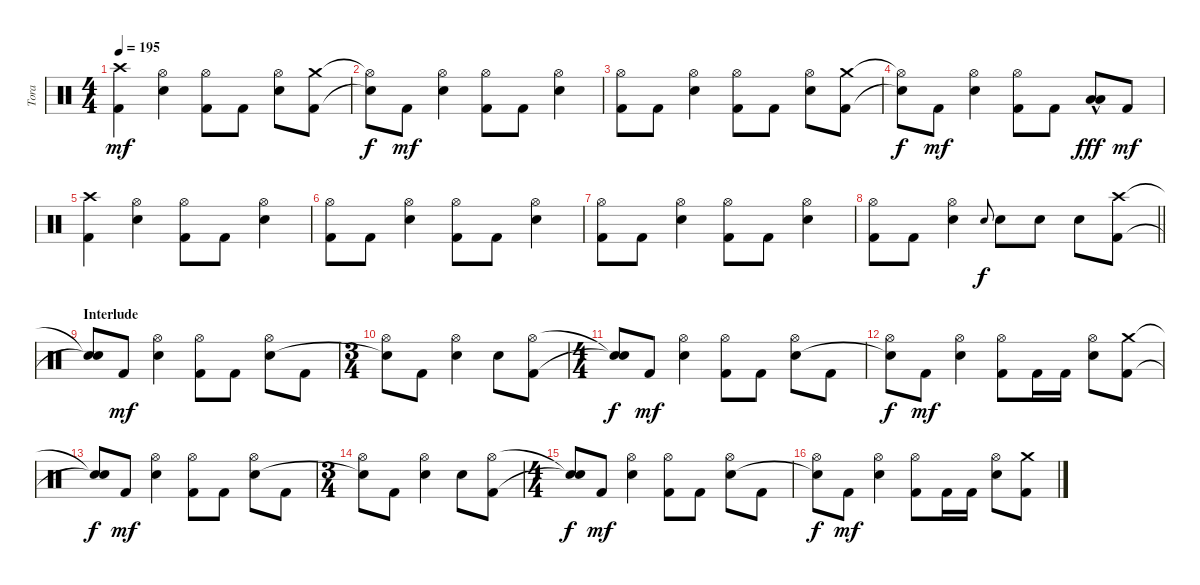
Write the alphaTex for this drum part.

\track ("Tora" "Tora") {instrument percussion}
\staff {score}
\articulation defaults
\ts (4 4)
\tempo 195
\clef neutral
\ks c
("Crash high (hit)" "Kick (hit) 2").4{dy mf} ("Hi-Hat (open)" "Electric Snare (hit)").4 ("Hi-Hat (open)" "Kick (hit) 2").8 "Kick (hit) 2".8 ("Hi-Hat (open)" "Electric Snare (hit)").8 ("Crash medium (hit)" "Kick (hit) 2").8 |
("Hi-Hat (open)"{t} "Snare (hit)"{t}).8{dy f} "Kick (hit) 2".8{dy mf} ("Hi-Hat (open)" "Electric Snare (hit)").4 ("Hi-Hat (open)" "Kick (hit) 2").8 "Kick (hit) 2".8 ("Hi-Hat (open)" "Electric Snare (hit)").4 |
("Hi-Hat (open)" "Kick (hit) 2").8 "Kick (hit) 2".8 ("Hi-Hat (open)" "Electric Snare (hit)").4 ("Hi-Hat (open)" "Kick (hit) 2").8 "Kick (hit) 2".8 ("Hi-Hat (open)" "Electric Snare (hit)").8 ("Crash medium (hit)" "Kick (hit) 2").8 |
("Hi-Hat (open)"{t} "Snare (hit)"{t}).8{dy f} "Kick (hit) 2".8{dy mf} ("Hi-Hat (open)" "Electric Snare (hit)").4 ("Hi-Hat (open)" "Kick (hit) 2").8 "Kick (hit) 2".8 ("Low Tom (hit)"{hac} "Low Tom (hit)"{hac}).8{dy fff} "Kick (hit) 2".8{dy mf} |
("Crash high (hit)" "Kick (hit) 2").4 ("Hi-Hat (open)" "Electric Snare (hit)").4 ("Hi-Hat (open)" "Kick (hit) 2").8 "Kick (hit) 2".8 ("Hi-Hat (open)" "Electric Snare (hit)").4 |
("Hi-Hat (open)" "Kick (hit) 2").8 "Kick (hit) 2".8 ("Hi-Hat (open)" "Electric Snare (hit)").4 ("Hi-Hat (open)" "Kick (hit) 2").8 "Kick (hit) 2".8 ("Hi-Hat (open)" "Electric Snare (hit)").4 |
("Hi-Hat (open)" "Kick (hit) 2").8 "Kick (hit) 2".8 ("Hi-Hat (open)" "Electric Snare (hit)").4 ("Hi-Hat (open)" "Kick (hit) 2").8 "Kick (hit) 2".8 ("Hi-Hat (open)" "Electric Snare (hit)").4 |
\barLineRight lightlight
("Hi-Hat (open)" "Kick (hit) 2").8 "Kick (hit) 2".8 ("Hi-Hat (open)" "Electric Snare (hit)").4 "Electric Snare (hit)".8{gr onbeat dy f} "Electric Snare (hit)".8 "Electric Snare (hit)".8 "Electric Snare (hit)".8 ("Crash high (hit)" "Kick (hit) 2").8 |
\section ("" "Interlude")
("Snare (hit)"{t} "Snare (hit)"{t}).8 "Kick (hit) 2".8{dy mf} ("Hi-Hat (open)" "Electric Snare (hit)").4 ("Hi-Hat (open)" "Kick (hit) 2").8 "Kick (hit) 2".8 ("Hi-Hat (open)" "Electric Snare (hit)").8 "Kick (hit) 2".8 |
\ts (3 4)
("Hi-Hat (open)" "Snare (hit)"{t}).8 "Kick (hit) 2".8 ("Hi-Hat (open)" "Electric Snare (hit)").4 "Electric Snare (hit)".8 ("Hi-Hat (open)" "Kick (hit) 2").8 |
\ts (4 4)
("Snare (hit)"{t} "Snare (hit)"{t}).8{dy f} "Kick (hit) 2".8{dy mf} ("Hi-Hat (open)" "Electric Snare (hit)").4 ("Hi-Hat (open)" "Kick (hit) 2").8 "Kick (hit) 2".8 ("Hi-Hat (open)" "Electric Snare (hit)").8 "Kick (hit) 2".8 |
("Hi-Hat (open)" "Snare (hit)"{t}).8{dy f} "Kick (hit) 2".8{dy mf} ("Hi-Hat (open)" "Electric Snare (hit)").4 ("Hi-Hat (open)" "Kick (hit) 2").8 "Kick (hit) 2".16 "Kick (hit) 2".16 ("Hi-Hat (open)" "Electric Snare (hit)").8 ("Crash medium (hit)" "Kick (hit) 2").8 |
("Snare (hit)"{t} "Snare (hit)"{t}).8{dy f} "Kick (hit) 2".8{dy mf} ("Hi-Hat (open)" "Electric Snare (hit)").4 ("Hi-Hat (open)" "Kick (hit) 2").8 "Kick (hit) 2".8 ("Hi-Hat (open)" "Electric Snare (hit)").8 "Kick (hit) 2".8 |
\ts (3 4)
("Hi-Hat (open)" "Snare (hit)"{t}).8 "Kick (hit) 2".8 ("Hi-Hat (open)" "Electric Snare (hit)").4 "Electric Snare (hit)".8 ("Hi-Hat (open)" "Kick (hit) 2").8 |
\ts (4 4)
("Snare (hit)"{t} "Snare (hit)"{t}).8{dy f} "Kick (hit) 2".8{dy mf} ("Hi-Hat (open)" "Electric Snare (hit)").4 ("Hi-Hat (open)" "Kick (hit) 2").8 "Kick (hit) 2".8 ("Hi-Hat (open)" "Electric Snare (hit)").8 "Kick (hit) 2".8 |
("Hi-Hat (open)" "Snare (hit)"{t}).8{dy f} "Kick (hit) 2".8{dy mf} ("Hi-Hat (open)" "Electric Snare (hit)").4 ("Hi-Hat (open)" "Kick (hit) 2").8 "Kick (hit) 2".16 "Kick (hit) 2".16 ("Hi-Hat (open)" "Electric Snare (hit)").8 ("Crash medium (hit)" "Kick (hit) 2").8
